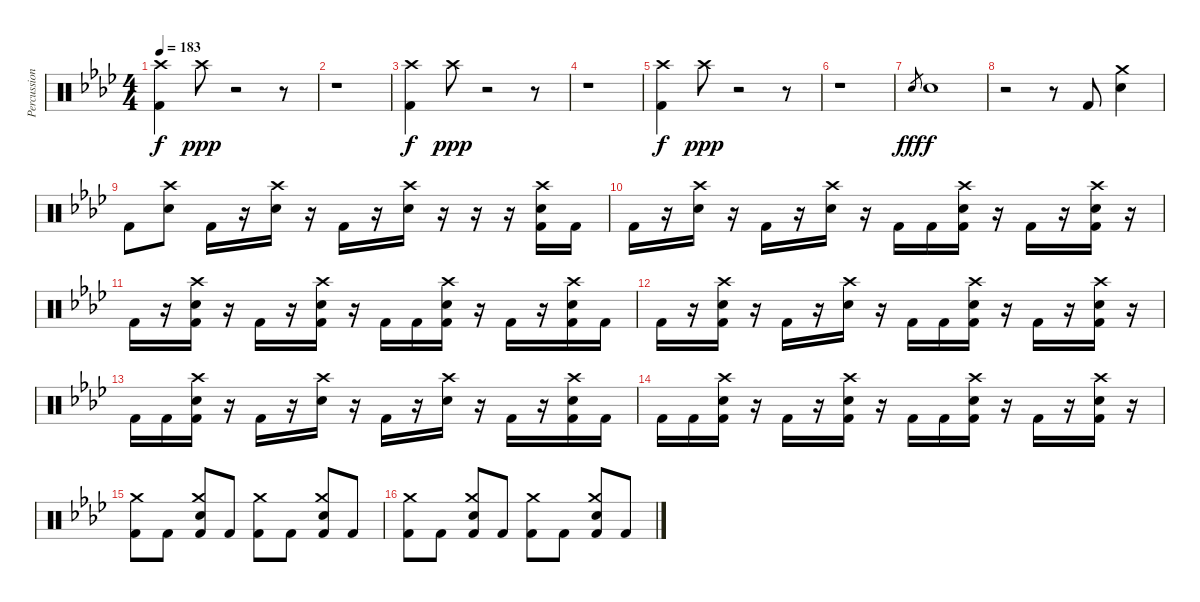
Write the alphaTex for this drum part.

\track ("Percussion" "Percussion") {instrument percussion}
\staff {score}
\articulation defaults
\ts (4 4)
\tempo 183
\clef neutral
\ks fminor
("Crash high (hit)" "Kick (hit) 2").4{dy f} "Crash high (hit)".8{dy ppp} r.2 r.8 |
r.1 |
("Crash high (hit)" "Kick (hit) 2").4{dy f} "Crash high (hit)".8{dy ppp} r.2 r.8 |
r.1 |
("Crash high (hit)" "Kick (hit) 2").4{dy f} "Crash high (hit)".8{dy ppp} r.2 r.8 |
r.1 |
"Snare (hit) 2".8{gr dy fff} "Snare (hit) 2".1{dy f} |
r.2 r.8 "Kick (hit) 2".8 ("Crash medium (hit)" "Snare (hit) 2").4 |
"Kick (hit) 2".8 ("Crash high (hit)" "Electric Snare (hit)").8 "Kick (hit) 2".16 r.16 ("Crash high (hit)" "Electric Snare (hit)").16 r.16 "Kick (hit) 2".16 r.16 ("Crash high (hit)" "Electric Snare (hit)").16 r.16 r.16 r.16 ("Crash high (hit)" "Electric Snare (hit)" "Kick (hit) 2").16 "Kick (hit) 2".16 |
"Kick (hit) 2".16 r.16 ("Crash high (hit)" "Electric Snare (hit)").16 r.16 "Kick (hit) 2".16 r.16 ("Crash high (hit)" "Electric Snare (hit)").16 r.16 "Kick (hit) 2".16 "Kick (hit) 2".16 ("Crash high (hit)" "Electric Snare (hit)" "Kick (hit) 2").16 r.16 "Kick (hit) 2".16 r.16 ("Crash high (hit)" "Electric Snare (hit)" "Kick (hit) 2").16 r.16 |
"Kick (hit) 2".16 r.16 ("Crash high (hit)" "Electric Snare (hit)" "Kick (hit) 2").16 r.16 "Kick (hit) 2".16 r.16 ("Crash high (hit)" "Electric Snare (hit)" "Kick (hit) 2").16 r.16 "Kick (hit) 2".16 "Kick (hit) 2".16 ("Crash high (hit)" "Electric Snare (hit)" "Kick (hit) 2").16 r.16 "Kick (hit) 2".16 r.16 ("Crash high (hit)" "Electric Snare (hit)" "Kick (hit) 2").16 "Kick (hit) 2".16 |
"Kick (hit) 2".16 r.16 ("Crash high (hit)" "Electric Snare (hit)" "Kick (hit) 2").16 r.16 "Kick (hit) 2".16 r.16 ("Crash high (hit)" "Electric Snare (hit)").16 r.16 "Kick (hit) 2".16 "Kick (hit) 2".16 ("Crash high (hit)" "Electric Snare (hit)" "Kick (hit) 2").16 r.16 "Kick (hit) 2".16 r.16 ("Crash high (hit)" "Electric Snare (hit)" "Kick (hit) 2").16 r.16 |
"Kick (hit) 2".16 "Kick (hit) 2".16 ("Crash high (hit)" "Electric Snare (hit)" "Kick (hit) 2").16 r.16 "Kick (hit) 2".16 r.16 ("Crash high (hit)" "Electric Snare (hit)").16 r.16 "Kick (hit) 2".16 r.16 ("Crash high (hit)" "Electric Snare (hit)").16 r.16 "Kick (hit) 2".16 r.16 ("Crash high (hit)" "Electric Snare (hit)" "Kick (hit) 2").16 "Kick (hit) 2".16 |
"Kick (hit) 2".16 "Kick (hit) 2".16 ("Crash high (hit)" "Electric Snare (hit)" "Kick (hit) 2").16 r.16 "Kick (hit) 2".16 r.16 ("Crash high (hit)" "Electric Snare (hit)" "Kick (hit) 2").16 r.16 "Kick (hit) 2".16 "Kick (hit) 2".16 ("Crash high (hit)" "Electric Snare (hit)" "Kick (hit) 2").16 r.16 "Kick (hit) 2".16 r.16 ("Crash high (hit)" "Electric Snare (hit)" "Kick (hit) 2").16 r.16 |
("Crash medium (hit)" "Kick (hit) 2").8 "Kick (hit) 2".8 ("Crash medium (hit)" "Electric Snare (hit)" "Kick (hit) 2").8 "Kick (hit) 2".8 ("Crash medium (hit)" "Kick (hit) 2").8 "Kick (hit) 2".8 ("Crash medium (hit)" "Electric Snare (hit)" "Kick (hit) 2").8 "Kick (hit) 2".8 |
("Crash medium (hit)" "Kick (hit) 2").8 "Kick (hit) 2".8 ("Crash medium (hit)" "Electric Snare (hit)" "Kick (hit) 2").8 "Kick (hit) 2".8 ("Crash medium (hit)" "Kick (hit) 2").8 "Kick (hit) 2".8 ("Crash medium (hit)" "Electric Snare (hit)" "Kick (hit) 2").8 "Kick (hit) 2".8
